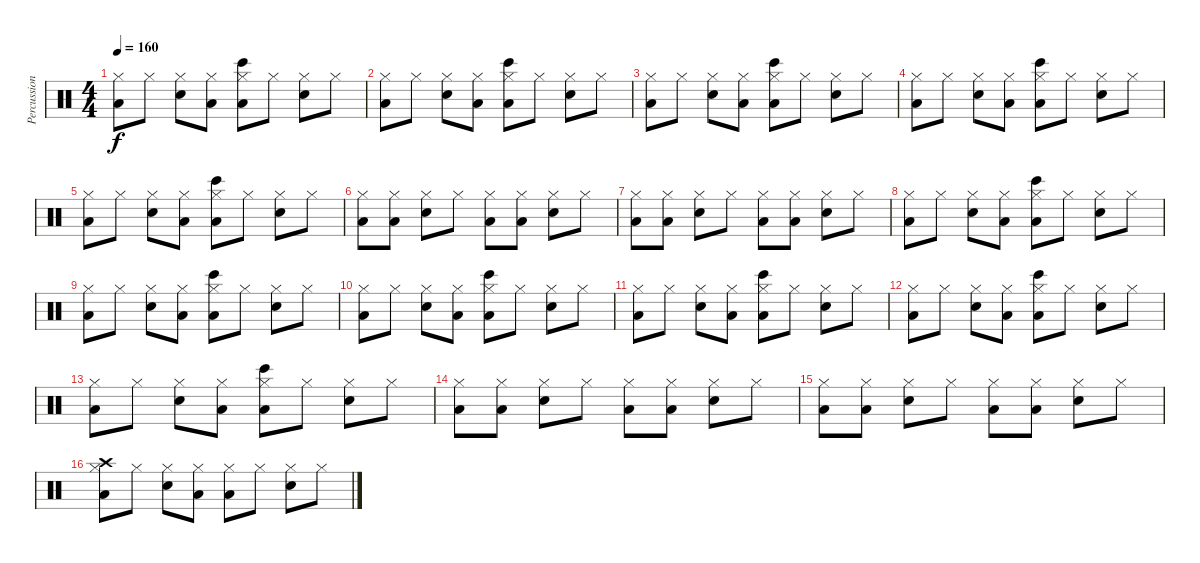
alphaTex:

\track ("Percussions" "Percussion") {instrument percussion}
\staff {score}
\articulation defaults
\ts (4 4)
\tempo 160
\clef neutral
\ks c
("Low Floor Tom (hit)" "Hi-Hat (closed)").8{dy f} "Hi-Hat (closed)".8 ("Electric Snare (hit)" "Hi-Hat (closed)").8 ("Low Floor Tom (hit)" "Hi-Hat (closed)").8 ("Low Floor Tom (hit)" "Bongo High (hit)" "Hi-Hat (closed)").8 "Hi-Hat (closed)".8 ("Electric Snare (hit)" "Hi-Hat (closed)").8 "Hi-Hat (closed)".8 |
("Low Floor Tom (hit)" "Hi-Hat (closed)").8 "Hi-Hat (closed)".8 ("Electric Snare (hit)" "Hi-Hat (closed)").8 ("Low Floor Tom (hit)" "Hi-Hat (closed)").8 ("Low Floor Tom (hit)" "Bongo High (hit)" "Hi-Hat (closed)").8 "Hi-Hat (closed)".8 ("Electric Snare (hit)" "Hi-Hat (closed)").8 "Hi-Hat (closed)".8 |
("Low Floor Tom (hit)" "Hi-Hat (closed)").8 "Hi-Hat (closed)".8 ("Electric Snare (hit)" "Hi-Hat (closed)").8 ("Low Floor Tom (hit)" "Hi-Hat (closed)").8 ("Low Floor Tom (hit)" "Bongo High (hit)" "Hi-Hat (closed)").8 "Hi-Hat (closed)".8 ("Electric Snare (hit)" "Hi-Hat (closed)").8 "Hi-Hat (closed)".8 |
("Low Floor Tom (hit)" "Hi-Hat (closed)").8 "Hi-Hat (closed)".8 ("Electric Snare (hit)" "Hi-Hat (closed)").8 ("Low Floor Tom (hit)" "Hi-Hat (closed)").8 ("Low Floor Tom (hit)" "Bongo High (hit)" "Hi-Hat (closed)").8 "Hi-Hat (closed)".8 ("Electric Snare (hit)" "Hi-Hat (closed)").8 "Hi-Hat (closed)".8 |
("Low Floor Tom (hit)" "Hi-Hat (closed)").8 "Hi-Hat (closed)".8 ("Electric Snare (hit)" "Hi-Hat (closed)").8 ("Low Floor Tom (hit)" "Hi-Hat (closed)").8 ("Low Floor Tom (hit)" "Bongo High (hit)" "Hi-Hat (closed)").8 "Hi-Hat (closed)".8 ("Electric Snare (hit)" "Hi-Hat (closed)").8 "Hi-Hat (closed)".8 |
("Low Floor Tom (hit)" "Hi-Hat (closed)").8 ("Low Floor Tom (hit)" "Hi-Hat (closed)").8 ("Electric Snare (hit)" "Hi-Hat (closed)").8 "Hi-Hat (closed)".8 ("Low Floor Tom (hit)" "Hi-Hat (closed)").8 ("Low Floor Tom (hit)" "Hi-Hat (closed)").8 ("Electric Snare (hit)" "Hi-Hat (closed)").8 "Hi-Hat (closed)".8 |
("Low Floor Tom (hit)" "Hi-Hat (closed)").8 ("Low Floor Tom (hit)" "Hi-Hat (closed)").8 ("Electric Snare (hit)" "Hi-Hat (closed)").8 "Hi-Hat (closed)".8 ("Low Floor Tom (hit)" "Hi-Hat (closed)").8 ("Low Floor Tom (hit)" "Hi-Hat (closed)").8 ("Electric Snare (hit)" "Hi-Hat (closed)").8 "Hi-Hat (closed)".8 |
("Low Floor Tom (hit)" "Hi-Hat (closed)").8 "Hi-Hat (closed)".8 ("Electric Snare (hit)" "Hi-Hat (closed)").8 ("Low Floor Tom (hit)" "Hi-Hat (closed)").8 ("Low Floor Tom (hit)" "Bongo High (hit)" "Hi-Hat (closed)").8 "Hi-Hat (closed)".8 ("Electric Snare (hit)" "Hi-Hat (closed)").8 "Hi-Hat (closed)".8 |
("Low Floor Tom (hit)" "Hi-Hat (closed)").8 "Hi-Hat (closed)".8 ("Electric Snare (hit)" "Hi-Hat (closed)").8 ("Low Floor Tom (hit)" "Hi-Hat (closed)").8 ("Low Floor Tom (hit)" "Bongo High (hit)" "Hi-Hat (closed)").8 "Hi-Hat (closed)".8 ("Electric Snare (hit)" "Hi-Hat (closed)").8 "Hi-Hat (closed)".8 |
("Low Floor Tom (hit)" "Hi-Hat (closed)").8 "Hi-Hat (closed)".8 ("Electric Snare (hit)" "Hi-Hat (closed)").8 ("Low Floor Tom (hit)" "Hi-Hat (closed)").8 ("Low Floor Tom (hit)" "Bongo High (hit)" "Hi-Hat (closed)").8 "Hi-Hat (closed)".8 ("Electric Snare (hit)" "Hi-Hat (closed)").8 "Hi-Hat (closed)".8 |
("Low Floor Tom (hit)" "Hi-Hat (closed)").8 "Hi-Hat (closed)".8 ("Electric Snare (hit)" "Hi-Hat (closed)").8 ("Low Floor Tom (hit)" "Hi-Hat (closed)").8 ("Low Floor Tom (hit)" "Bongo High (hit)" "Hi-Hat (closed)").8 "Hi-Hat (closed)".8 ("Electric Snare (hit)" "Hi-Hat (closed)").8 "Hi-Hat (closed)".8 |
("Low Floor Tom (hit)" "Hi-Hat (closed)").8 "Hi-Hat (closed)".8 ("Electric Snare (hit)" "Hi-Hat (closed)").8 ("Low Floor Tom (hit)" "Hi-Hat (closed)").8 ("Low Floor Tom (hit)" "Bongo High (hit)" "Hi-Hat (closed)").8 "Hi-Hat (closed)".8 ("Electric Snare (hit)" "Hi-Hat (closed)").8 "Hi-Hat (closed)".8 |
("Low Floor Tom (hit)" "Hi-Hat (closed)").8 "Hi-Hat (closed)".8 ("Electric Snare (hit)" "Hi-Hat (closed)").8 ("Low Floor Tom (hit)" "Hi-Hat (closed)").8 ("Low Floor Tom (hit)" "Bongo High (hit)" "Hi-Hat (closed)").8 "Hi-Hat (closed)".8 ("Electric Snare (hit)" "Hi-Hat (closed)").8 "Hi-Hat (closed)".8 |
("Low Floor Tom (hit)" "Hi-Hat (closed)").8 ("Low Floor Tom (hit)" "Hi-Hat (closed)").8 ("Electric Snare (hit)" "Hi-Hat (closed)").8 "Hi-Hat (closed)".8 ("Low Floor Tom (hit)" "Hi-Hat (closed)").8 ("Low Floor Tom (hit)" "Hi-Hat (closed)").8 ("Electric Snare (hit)" "Hi-Hat (closed)").8 "Hi-Hat (closed)".8 |
("Low Floor Tom (hit)" "Hi-Hat (closed)").8 ("Low Floor Tom (hit)" "Hi-Hat (closed)").8 ("Electric Snare (hit)" "Hi-Hat (closed)").8 "Hi-Hat (closed)".8 ("Low Floor Tom (hit)" "Hi-Hat (closed)").8 ("Low Floor Tom (hit)" "Hi-Hat (closed)").8 ("Electric Snare (hit)" "Hi-Hat (closed)").8 "Hi-Hat (closed)".8 |
("Low Floor Tom (hit)" "Hi-Hat (closed)" "Crash high (hit)").8 "Hi-Hat (closed)".8 ("Electric Snare (hit)" "Hi-Hat (closed)").8 ("Low Floor Tom (hit)" "Hi-Hat (closed)").8 ("Low Floor Tom (hit)" "Hi-Hat (closed)").8 "Hi-Hat (closed)".8 ("Electric Snare (hit)" "Hi-Hat (closed)").8 "Hi-Hat (closed)".8
